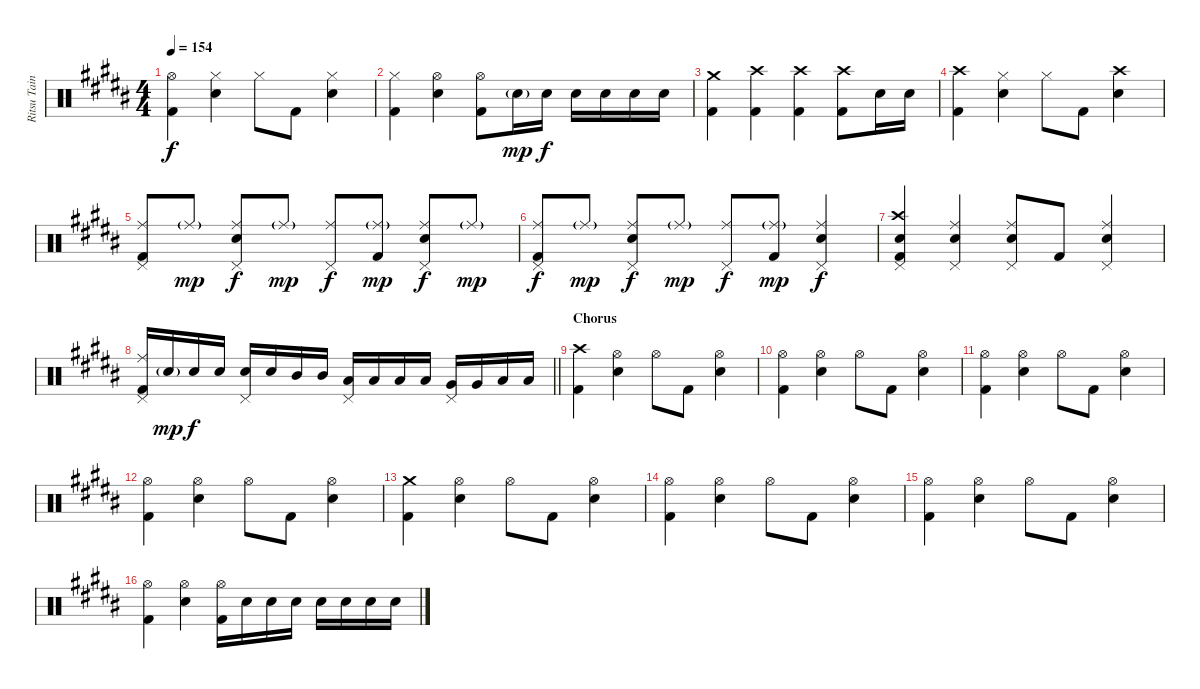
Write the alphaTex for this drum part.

\track ("Ritsu Tainaka" "Ritsu Tain") {instrument percussion}
\staff {score}
\articulation defaults
\ts (4 4)
\tempo 154
\clef neutral
\ks b
("Hi-Hat (open)" "Kick (hit) 2").4{dy f} ("Hi-Hat (closed)" "Snare (hit) 2").4 "Hi-Hat (closed)".8 "Kick (hit) 2".8 ("Hi-Hat (closed)" "Snare (hit) 2").4 |
("Hi-Hat (closed)" "Kick (hit) 2").4 ("Hi-Hat (open)" "Snare (hit) 2").4 ("Hi-Hat (open)" "Kick (hit) 2").8 "Snare (hit) 2"{g}.16{dy mp} "Snare (hit) 2".16{dy f} "Snare (hit) 2".16 "Snare (hit) 2".16 "Snare (hit) 2".16 "Snare (hit) 2".16 |
("Crash medium (hit)" "Kick (hit) 2").4 ("Crash high (hit)" "Kick (hit) 2").4 ("Crash high (hit)" "Kick (hit) 2").4 ("Crash high (hit)" "Kick (hit) 2").8 "Snare (hit) 2".16 "Snare (hit) 2".16 |
("Crash high (hit)" "Kick (hit) 2").4 ("Hi-Hat (closed)" "Snare (hit) 2").4 "Hi-Hat (closed)".8 "Kick (hit) 2".8 ("Crash high (hit)" "Snare (hit) 2").4 |
("Ride (middle)" "Pedal Hi-Hat (hit)" "Kick (hit) 2").8 "Ride (middle)"{g}.8{dy mp} ("Ride (middle)" "Pedal Hi-Hat (hit)" "Snare (hit) 2").8{dy f} "Ride (middle)"{g}.8{dy mp} ("Ride (middle)" "Pedal Hi-Hat (hit)").8{dy f} ("Ride (middle)"{g} "Kick (hit) 2").8{dy mp} ("Ride (middle)" "Pedal Hi-Hat (hit)" "Snare (hit) 2").8{dy f} "Ride (middle)"{g}.8{dy mp} |
("Ride (middle)" "Pedal Hi-Hat (hit)" "Kick (hit) 2").8{dy f} "Ride (middle)"{g}.8{dy mp} ("Ride (middle)" "Pedal Hi-Hat (hit)" "Snare (hit) 2").8{dy f} "Ride (middle)"{g}.8{dy mp} ("Ride (middle)" "Pedal Hi-Hat (hit)").8{dy f} ("Ride (middle)"{g} "Kick (hit) 2").8{dy mp} ("Ride (middle)" "Pedal Hi-Hat (hit)" "Snare (hit) 2").4{dy f} |
("Crash high (hit)" "Pedal Hi-Hat (hit)" "Snare (hit) 2" "Kick (hit) 2").4 ("Ride (middle)" "Pedal Hi-Hat (hit)" "Snare (hit) 2").4 ("Ride (middle)" "Pedal Hi-Hat (hit)" "Snare (hit) 2").8 "Kick (hit) 2".8 ("Ride (middle)" "Pedal Hi-Hat (hit)" "Snare (hit) 2").4 |
\barLineRight lightlight
("Ride (middle)" "Pedal Hi-Hat (hit)" "Kick (hit) 2").16 "Snare (hit) 2"{g}.16{dy mp} "Snare (hit) 2".16{dy f} "Snare (hit) 2".16 ("Pedal Hi-Hat (hit)" "Snare (hit) 2").16 "Snare (hit) 2".16 "Mid Tom (hit)".16 "Mid Tom (hit)".16 ("Pedal Hi-Hat (hit)" "Low Tom (hit)").16 "Low Tom (hit)".16 "Low Tom (hit)".16 "Low Tom (hit)".16 ("Pedal Hi-Hat (hit)" "Very Low Tom (hit)").16 "Very Low Tom (hit)".16 "Low Floor Tom (hit)".16 "Low Floor Tom (hit)".16 |
\section ("" "Chorus")
("Crash high (hit)" "Kick (hit) 2").4 ("Hi-Hat (open)" "Snare (hit) 2").4 "Hi-Hat (open)".8 "Kick (hit) 2".8 ("Hi-Hat (open)" "Snare (hit) 2").4 |
("Hi-Hat (open)" "Kick (hit) 2").4 ("Hi-Hat (open)" "Snare (hit) 2").4 "Hi-Hat (open)".8 "Kick (hit) 2".8 ("Hi-Hat (open)" "Snare (hit) 2").4 |
("Hi-Hat (open)" "Kick (hit) 2").4 ("Hi-Hat (open)" "Snare (hit) 2").4 "Hi-Hat (open)".8 "Kick (hit) 2".8 ("Hi-Hat (open)" "Snare (hit) 2").4 |
("Hi-Hat (open)" "Kick (hit) 2").4 ("Hi-Hat (open)" "Snare (hit) 2").4 "Hi-Hat (open)".8 "Kick (hit) 2".8 ("Hi-Hat (open)" "Snare (hit) 2").4 |
("Crash medium (hit)" "Kick (hit) 2").4 ("Hi-Hat (open)" "Snare (hit) 2").4 "Hi-Hat (open)".8 "Kick (hit) 2".8 ("Hi-Hat (open)" "Snare (hit) 2").4 |
("Hi-Hat (open)" "Kick (hit) 2").4 ("Hi-Hat (open)" "Snare (hit) 2").4 "Hi-Hat (open)".8 "Kick (hit) 2".8 ("Hi-Hat (open)" "Snare (hit) 2").4 |
("Hi-Hat (open)" "Kick (hit) 2").4 ("Hi-Hat (open)" "Snare (hit) 2").4 "Hi-Hat (open)".8 "Kick (hit) 2".8 ("Hi-Hat (open)" "Snare (hit) 2").4 |
("Hi-Hat (open)" "Kick (hit) 2").4 ("Hi-Hat (open)" "Snare (hit) 2").4 ("Hi-Hat (open)" "Kick (hit) 2").16 "Snare (hit) 2".16 "Snare (hit) 2".16 "Snare (hit) 2".16 "Snare (hit) 2".16 "Snare (hit) 2".16 "Snare (hit) 2".16 "Snare (hit) 2".16
